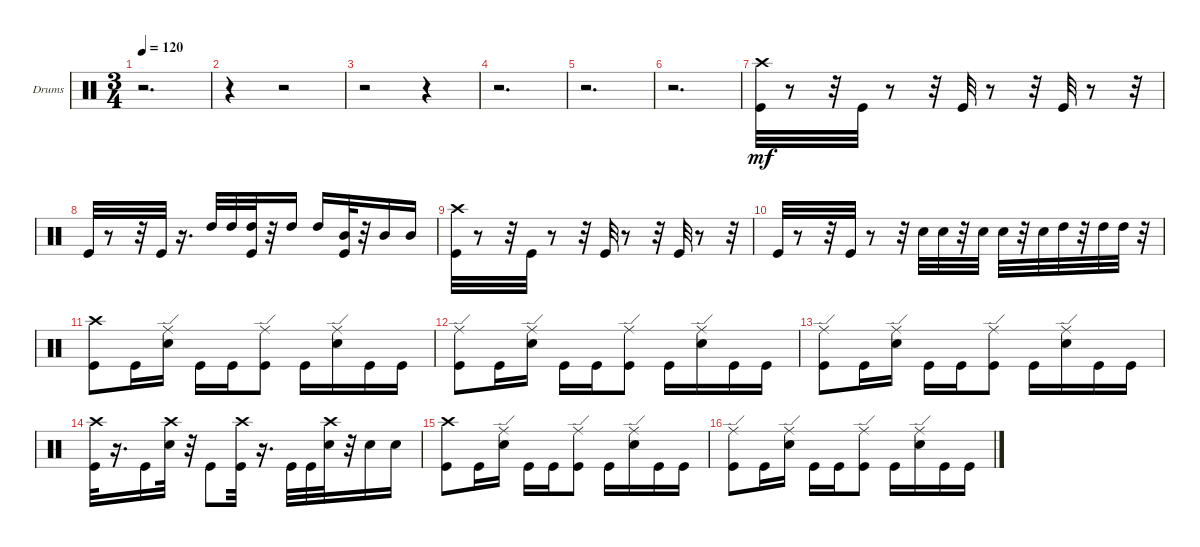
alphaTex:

\bracketExtendMode groupsimilarinstruments
\firstSystemTrackNameOrientation horizontal
\otherSystemsTrackNameOrientation horizontal
\track ("" "Drums") {instrument percussion}
\staff {score}
\articulation defaults
\ts (3 4)
\tempo 120
\clef neutral
\ks c
r.2{d dy mf} |
r.4 r.2 |
r.2 r.4 |
r.2{d} |
r.2{d} |
r.2{d} |
("Crash high (hit)" "Kick (hit)").32 r.8 r.32 "Kick (hit)".32 r.8 r.32 "Kick (hit)".32 r.8 r.32 "Kick (hit)".32 r.8 r.32 |
"Kick (hit)".32 r.8 r.32 "Kick (hit)".32 r.16{d} "High Tom (hit)".32 "High Tom (hit)".32 ("High Tom (hit)" "Kick (hit)").32 r.32 "High Tom (hit)".16 "High Tom (hit)".16 ("Mid Tom (hit)" "Kick (hit)").32 r.32 "Mid Tom (hit)".16 "Mid Tom (hit)".16 |
("Crash high (hit)" "Kick (hit)").32 r.8 r.32 "Kick (hit)".32 r.8 r.32 "Kick (hit)".32 r.8 r.32 "Kick (hit)".32 r.8 r.32 |
"Kick (hit)".32 r.8 r.32 "Kick (hit)".32 r.8 r.32 "Snare (hit) 2".32 "Snare (hit) 2".32 r.32 "Snare (hit) 2".32 "Snare (hit) 2".32 r.32 "Snare (hit) 2".32 "High Tom (hit)".32 r.32 "High Tom (hit)".32 "High Tom (hit)".32 r.32 |
("Crash high (hit)" "Kick (hit)").8 "Kick (hit)".16 ("Snare (hit) 2" "Ride (edge)").16 "Kick (hit)".16 "Kick (hit)".16 ("Kick (hit)" "Ride (edge)").8 "Kick (hit)".16 ("Snare (hit) 2" "Ride (edge)").16 "Kick (hit)".16 "Kick (hit)".16 |
("Ride (edge)" "Kick (hit)").8 "Kick (hit)".16 ("Snare (hit) 2" "Ride (edge)").16 "Kick (hit)".16 "Kick (hit)".16 ("Kick (hit)" "Ride (edge)").8 "Kick (hit)".16 ("Snare (hit) 2" "Ride (edge)").16 "Kick (hit)".16 "Kick (hit)".16 |
("Ride (edge)" "Kick (hit)").8 "Kick (hit)".16 ("Snare (hit) 2" "Ride (edge)").16 "Kick (hit)".16 "Kick (hit)".16 ("Kick (hit)" "Ride (edge)").8 "Kick (hit)".16 ("Snare (hit) 2" "Ride (edge)").16 "Kick (hit)".16 "Kick (hit)".16 |
("Crash high (hit)" "Kick (hit)").32 r.16{d} "Kick (hit)".16 ("Snare (hit) 2" "Crash high (hit)").32 r.32 "Kick (hit)".8 ("Kick (hit)" "Crash high (hit)").32 r.16{d} "Kick (hit)".32 "Kick (hit)".32 ("Snare (hit) 2" "Crash high (hit)").32 r.32 "Snare (hit) 2".16 "Snare (hit) 2".16 |
("Crash high (hit)" "Kick (hit)").8 "Kick (hit)".16 ("Snare (hit) 2" "Ride (edge)").16 "Kick (hit)".16 "Kick (hit)".16 ("Kick (hit)" "Ride (edge)").8 "Kick (hit)".16 ("Snare (hit) 2" "Ride (edge)").16 "Kick (hit)".16 "Kick (hit)".16 |
("Ride (edge)" "Kick (hit)").8 "Kick (hit)".16 ("Snare (hit) 2" "Ride (edge)").16 "Kick (hit)".16 "Kick (hit)".16 ("Kick (hit)" "Ride (edge)").8 "Kick (hit)".16 ("Snare (hit) 2" "Ride (edge)").16 "Kick (hit)".16 "Kick (hit)".16
